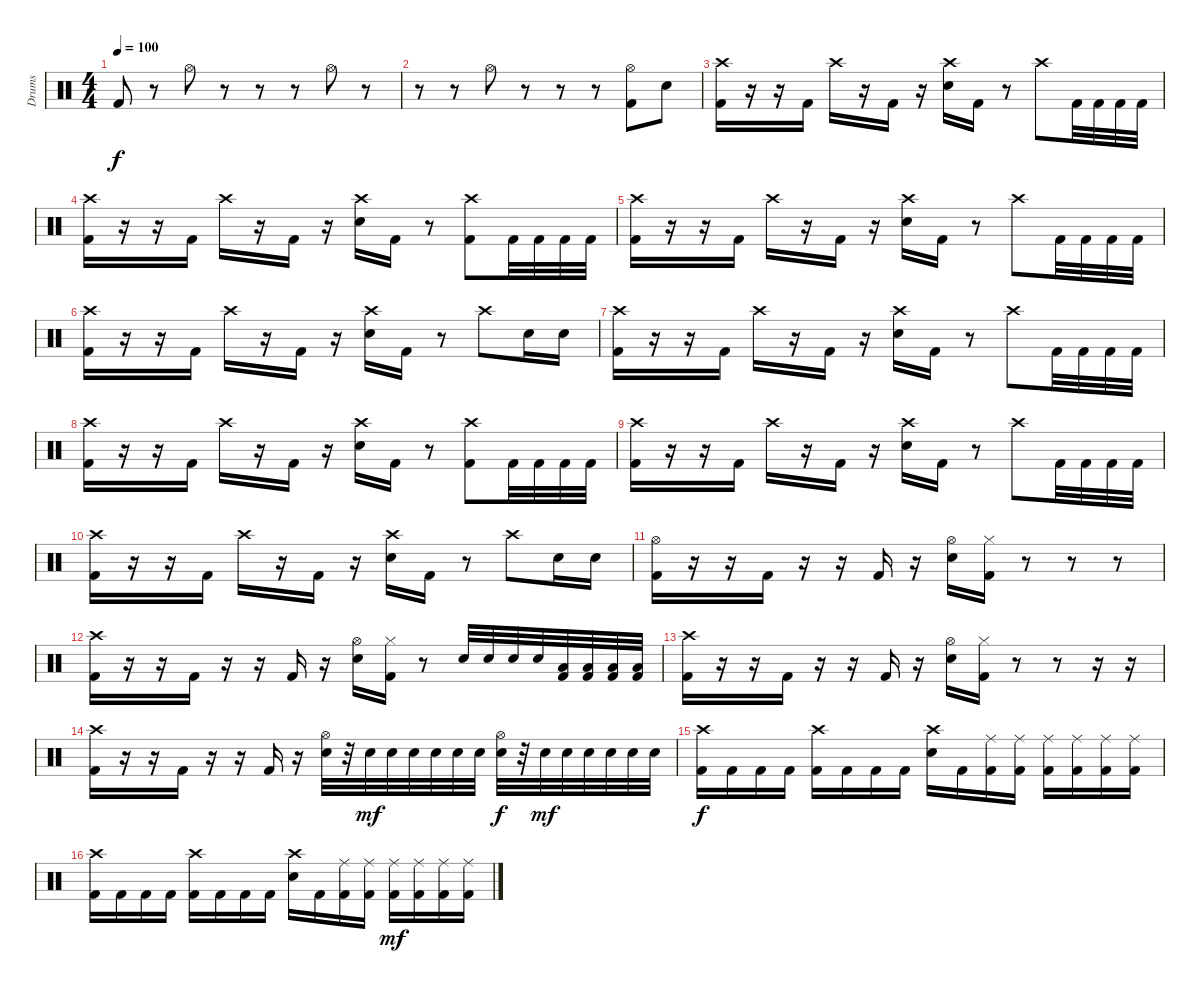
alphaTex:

\track ("Drums " "Drums ") {instrument percussion}
\staff {score}
\articulation defaults
\ts (4 4)
\tempo 100
\clef neutral
\ks c "Kick (hit) 2".8{dy f}
r.8 "Hi-Hat (open)".8 r.8 r.8 r.8 "Hi-Hat (open)".8 r.8 |
r.8 r.8 "Hi-Hat (open)".8 r.8 r.8 r.8 ("Hi-Hat (open)" "Kick (hit) 2").8 "Electric Snare (hit)".8 |
("Crash high (hit)" "Kick (hit) 2").16 r.16 r.16 "Kick (hit) 2".16 "Crash high (hit)".16 r.16 "Kick (hit) 2".16 r.16 ("Crash high (hit)" "Electric Snare (hit)").16 "Kick (hit) 2".16 r.8 "Crash high (hit)".8 "Kick (hit) 2".32 "Kick (hit) 2".32 "Kick (hit) 2".32 "Kick (hit) 2".32 |
("Crash high (hit)" "Kick (hit) 2").16 r.16 r.16 "Kick (hit) 2".16 "Crash high (hit)".16 r.16 "Kick (hit) 2".16 r.16 ("Crash high (hit)" "Electric Snare (hit)").16 "Kick (hit) 2".16 r.8 ("Crash high (hit)" "Kick (hit) 2").8 "Kick (hit) 2".32 "Kick (hit) 2".32 "Kick (hit) 2".32 "Kick (hit) 2".32 |
("Crash high (hit)" "Kick (hit) 2").16 r.16 r.16 "Kick (hit) 2".16 "Crash high (hit)".16 r.16 "Kick (hit) 2".16 r.16 ("Crash high (hit)" "Electric Snare (hit)").16 "Kick (hit) 2".16 r.8 "Crash high (hit)".8 "Kick (hit) 2".32 "Kick (hit) 2".32 "Kick (hit) 2".32 "Kick (hit) 2".32 |
("Crash high (hit)" "Kick (hit) 2").16 r.16 r.16 "Kick (hit) 2".16 "Crash high (hit)".16 r.16 "Kick (hit) 2".16 r.16 ("Crash high (hit)" "Electric Snare (hit)").16 "Kick (hit) 2".16 r.8 "Crash high (hit)".8 "Electric Snare (hit)".16 "Electric Snare (hit)".16 |
("Crash high (hit)" "Kick (hit) 2").16 r.16 r.16 "Kick (hit) 2".16 "Crash high (hit)".16 r.16 "Kick (hit) 2".16 r.16 ("Crash high (hit)" "Electric Snare (hit)").16 "Kick (hit) 2".16 r.8 "Crash high (hit)".8 "Kick (hit) 2".32 "Kick (hit) 2".32 "Kick (hit) 2".32 "Kick (hit) 2".32 |
("Crash high (hit)" "Kick (hit) 2").16 r.16 r.16 "Kick (hit) 2".16 "Crash high (hit)".16 r.16 "Kick (hit) 2".16 r.16 ("Crash high (hit)" "Electric Snare (hit)").16 "Kick (hit) 2".16 r.8 ("Crash high (hit)" "Kick (hit) 2").8 "Kick (hit) 2".32 "Kick (hit) 2".32 "Kick (hit) 2".32 "Kick (hit) 2".32 |
("Crash high (hit)" "Kick (hit) 2").16 r.16 r.16 "Kick (hit) 2".16 "Crash high (hit)".16 r.16 "Kick (hit) 2".16 r.16 ("Crash high (hit)" "Electric Snare (hit)").16 "Kick (hit) 2".16 r.8 "Crash high (hit)".8 "Kick (hit) 2".32 "Kick (hit) 2".32 "Kick (hit) 2".32 "Kick (hit) 2".32 |
("Crash high (hit)" "Kick (hit) 2").16 r.16 r.16 "Kick (hit) 2".16 "Crash high (hit)".16 r.16 "Kick (hit) 2".16 r.16 ("Crash high (hit)" "Electric Snare (hit)").16 "Kick (hit) 2".16 r.8 "Crash high (hit)".8 "Electric Snare (hit)".16 "Electric Snare (hit)".16 |
("Hi-Hat (open)" "Kick (hit) 2").16 r.16 r.16 "Kick (hit) 2".16 r.16 r.16 "Kick (hit) 2".16 r.16 ("Hi-Hat (open)" "Electric Snare (hit)").16 ("Hi-Hat (closed)" "Kick (hit) 2").16 r.8 r.8 r.8 |
("Crash high (hit)" "Kick (hit) 2").16 r.16 r.16 "Kick (hit) 2".16 r.16 r.16 "Kick (hit) 2".16 r.16 ("Hi-Hat (open)" "Electric Snare (hit)").16 ("Hi-Hat (closed)" "Kick (hit) 2").16 r.8 "Electric Snare (hit)".32 "Electric Snare (hit)".32 "Electric Snare (hit)".32 "Electric Snare (hit)".32 ("Kick (hit) 2" "Low Tom (hit)").32 ("Kick (hit) 2" "Low Tom (hit)").32 ("Kick (hit) 2" "Low Tom (hit)").32 ("Kick (hit) 2" "Low Tom (hit)").32 |
("Crash high (hit)" "Kick (hit) 2").16 r.16 r.16 "Kick (hit) 2".16 r.16 r.16 "Kick (hit) 2".16 r.16 ("Hi-Hat (open)" "Electric Snare (hit)").16 ("Hi-Hat (closed)" "Kick (hit) 2").16 r.8 r.8 r.16 r.16 |
("Crash high (hit)" "Kick (hit) 2").16 r.16 r.16 "Kick (hit) 2".16 r.16 r.16 "Kick (hit) 2".16 r.16 ("Hi-Hat (open)" "Electric Snare (hit)").32 r.32 "Electric Snare (hit)".32{dy mf} "Electric Snare (hit)".32 "Electric Snare (hit)".32 "Electric Snare (hit)".32 "Electric Snare (hit)".32 "Electric Snare (hit)".32 ("Hi-Hat (open)" "Electric Snare (hit)").32{dy f} r.32 "Electric Snare (hit)".32{dy mf} "Electric Snare (hit)".32 "Electric Snare (hit)".32 "Electric Snare (hit)".32 "Electric Snare (hit)".32 "Electric Snare (hit)".32 |
("Crash high (hit)" "Kick (hit) 2").16{dy f} "Kick (hit) 2".16 "Kick (hit) 2".16 "Kick (hit) 2".16 ("Crash high (hit)" "Kick (hit) 2").16 "Kick (hit) 2".16 "Kick (hit) 2".16 "Kick (hit) 2".16 ("Crash high (hit)" "Electric Snare (hit)").16 "Kick (hit) 2".16 ("Ride (middle)" "Kick (hit) 2").16 ("Ride (middle)" "Kick (hit) 2").16 ("Ride (middle)" "Kick (hit) 2").16 ("Ride (middle)" "Kick (hit) 2").16 ("Ride (middle)" "Kick (hit) 2").16 ("Ride (middle)" "Kick (hit) 2").16 |
("Crash high (hit)" "Kick (hit) 2").16 "Kick (hit) 2".16 "Kick (hit) 2".16 "Kick (hit) 2".16 ("Crash high (hit)" "Kick (hit) 2").16 "Kick (hit) 2".16 "Kick (hit) 2".16 "Kick (hit) 2".16 ("Crash high (hit)" "Electric Snare (hit)").16 "Kick (hit) 2".16 ("Ride (middle)" "Kick (hit) 2").16 ("Ride (middle)" "Kick (hit) 2").16 ("Ride (middle)" "Kick (hit) 2").16{dy mf} ("Ride (middle)" "Kick (hit) 2").16 ("Ride (middle)" "Kick (hit) 2").16 ("Ride (middle)" "Kick (hit) 2").16
